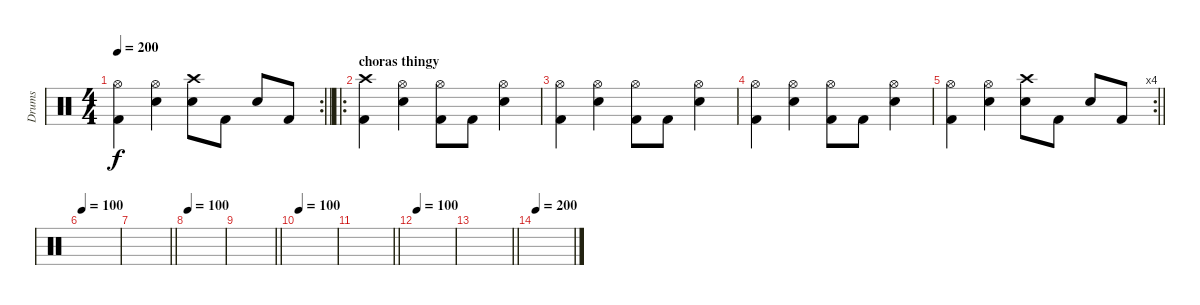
\track ("Drums" "Drums") {instrument percussion}
\staff {score}
\articulation defaults
\rc 2
\ts (4 4)
\tempo 200
\clef neutral
\barLineRight lightlight
\ks c
("Hi-Hat (open)" "Kick (hit) 2").4{dy f} ("Hi-Hat (open)" "Electric Snare (hit)").4 ("Crash high (hit)" "Electric Snare (hit)").8 "Kick (hit) 2".8 "Electric Snare (hit)".8 "Kick (hit) 2".8 |
\ro
\section ("" "choras thingy")
("Crash high (hit)" "Kick (hit) 2").4 ("Hi-Hat (open)" "Electric Snare (hit)").4 ("Hi-Hat (open)" "Kick (hit) 2").8 "Kick (hit) 2".8 ("Hi-Hat (open)" "Electric Snare (hit)").4 |
("Hi-Hat (open)" "Kick (hit) 2").4 ("Hi-Hat (open)" "Electric Snare (hit)").4 ("Hi-Hat (open)" "Kick (hit) 2").8 "Kick (hit) 2".8 ("Hi-Hat (open)" "Electric Snare (hit)").4 |
("Hi-Hat (open)" "Kick (hit) 2").4 ("Hi-Hat (open)" "Electric Snare (hit)").4 ("Hi-Hat (open)" "Kick (hit) 2").8 "Kick (hit) 2".8 ("Hi-Hat (open)" "Electric Snare (hit)").4 |
\rc 4
\barLineRight lightlight
("Hi-Hat (open)" "Kick (hit) 2").4 ("Hi-Hat (open)" "Electric Snare (hit)").4 ("Crash high (hit)" "Electric Snare (hit)").8 "Kick (hit) 2".8 "Electric Snare (hit)".8 "Kick (hit) 2".8 |
\tempo 100
|
\barLineRight lightlight
|
\tempo 100
|
\barLineRight lightlight
|
\tempo 100
|
\barLineRight lightlight
|
\tempo 100
|
\barLineRight lightlight
|
\tempo 200
